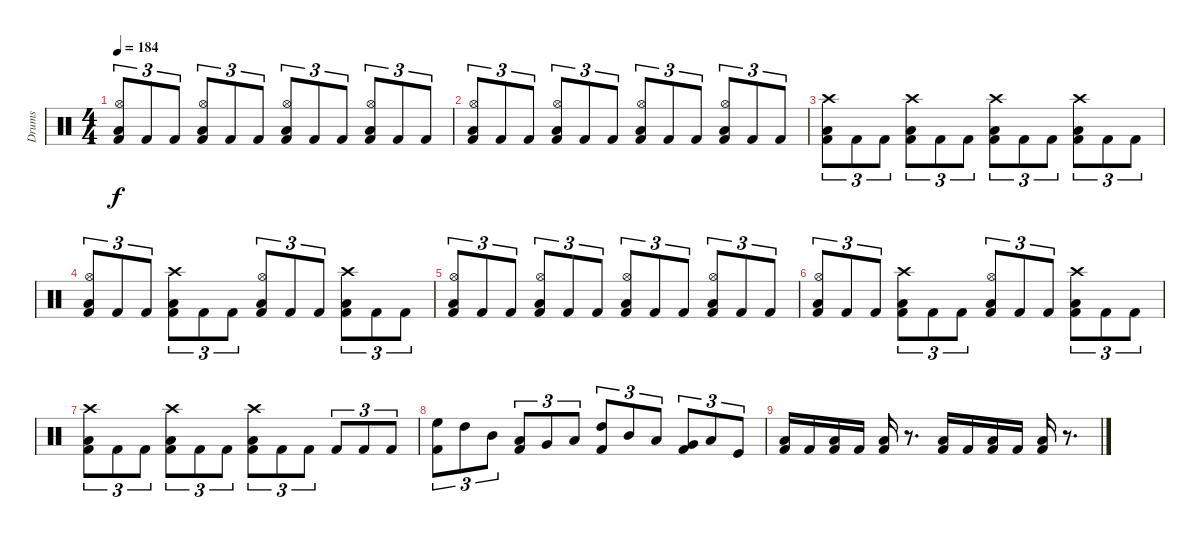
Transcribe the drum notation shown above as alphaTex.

\track ("Drums" "Drums") {instrument percussion}
\staff {score}
\articulation defaults
\ts (4 4)
\tempo 184
\clef neutral
\ks c
("Kick (hit) 2" "Hi-Hat (open)" "Low Floor Tom (hit)").8{tu (3 2) dy f} "Kick (hit) 2".8{tu (3 2)} "Kick (hit) 2".8{tu (3 2)} ("Hi-Hat (open)" "Low Floor Tom (hit)" "Kick (hit) 2").8{tu (3 2)} "Kick (hit) 2".8{tu (3 2)} "Kick (hit) 2".8{tu (3 2)} ("Kick (hit) 2" "Hi-Hat (open)" "Low Floor Tom (hit)").8{tu (3 2)} "Kick (hit) 2".8{tu (3 2)} "Kick (hit) 2".8{tu (3 2)} ("Hi-Hat (open)" "Low Floor Tom (hit)" "Kick (hit) 2").8{tu (3 2)} "Kick (hit) 2".8{tu (3 2)} "Kick (hit) 2".8{tu (3 2)} |
("Kick (hit) 2" "Hi-Hat (open)" "Low Floor Tom (hit)").8{tu (3 2)} "Kick (hit) 2".8{tu (3 2)} "Kick (hit) 2".8{tu (3 2)} ("Hi-Hat (open)" "Low Floor Tom (hit)" "Kick (hit) 2").8{tu (3 2)} "Kick (hit) 2".8{tu (3 2)} "Kick (hit) 2".8{tu (3 2)} ("Kick (hit) 2" "Hi-Hat (open)" "Low Floor Tom (hit)").8{tu (3 2)} "Kick (hit) 2".8{tu (3 2)} "Kick (hit) 2".8{tu (3 2)} ("Hi-Hat (open)" "Low Floor Tom (hit)" "Kick (hit) 2").8{tu (3 2)} "Kick (hit) 2".8{tu (3 2)} "Kick (hit) 2".8{tu (3 2)} |
("Kick (hit) 2" "Crash high (hit)" "Low Floor Tom (hit)").8{tu (3 2)} "Kick (hit) 2".8{tu (3 2)} "Kick (hit) 2".8{tu (3 2)} ("Crash high (hit)" "Low Floor Tom (hit)" "Kick (hit) 2").8{tu (3 2)} "Kick (hit) 2".8{tu (3 2)} "Kick (hit) 2".8{tu (3 2)} ("Kick (hit) 2" "Crash high (hit)" "Low Floor Tom (hit)").8{tu (3 2)} "Kick (hit) 2".8{tu (3 2)} "Kick (hit) 2".8{tu (3 2)} ("Crash high (hit)" "Low Floor Tom (hit)" "Kick (hit) 2").8{tu (3 2)} "Kick (hit) 2".8{tu (3 2)} "Kick (hit) 2".8{tu (3 2)} |
("Kick (hit) 2" "Hi-Hat (open)" "Low Floor Tom (hit)").8{tu (3 2)} "Kick (hit) 2".8{tu (3 2)} "Kick (hit) 2".8{tu (3 2)} ("Crash high (hit)" "Low Floor Tom (hit)" "Kick (hit) 2").8{tu (3 2)} "Kick (hit) 2".8{tu (3 2)} "Kick (hit) 2".8{tu (3 2)} ("Kick (hit) 2" "Hi-Hat (open)" "Low Floor Tom (hit)").8{tu (3 2)} "Kick (hit) 2".8{tu (3 2)} "Kick (hit) 2".8{tu (3 2)} ("Crash high (hit)" "Low Floor Tom (hit)" "Kick (hit) 2").8{tu (3 2)} "Kick (hit) 2".8{tu (3 2)} "Kick (hit) 2".8{tu (3 2)} |
("Kick (hit) 2" "Hi-Hat (open)" "Low Floor Tom (hit)").8{tu (3 2)} "Kick (hit) 2".8{tu (3 2)} "Kick (hit) 2".8{tu (3 2)} ("Hi-Hat (open)" "Low Floor Tom (hit)" "Kick (hit) 2").8{tu (3 2)} "Kick (hit) 2".8{tu (3 2)} "Kick (hit) 2".8{tu (3 2)} ("Kick (hit) 2" "Hi-Hat (open)" "Low Floor Tom (hit)").8{tu (3 2)} "Kick (hit) 2".8{tu (3 2)} "Kick (hit) 2".8{tu (3 2)} ("Hi-Hat (open)" "Low Floor Tom (hit)" "Kick (hit) 2").8{tu (3 2)} "Kick (hit) 2".8{tu (3 2)} "Kick (hit) 2".8{tu (3 2)} |
("Kick (hit) 2" "Hi-Hat (open)" "Low Floor Tom (hit)").8{tu (3 2)} "Kick (hit) 2".8{tu (3 2)} "Kick (hit) 2".8{tu (3 2)} ("Crash high (hit)" "Low Floor Tom (hit)" "Kick (hit) 2").8{tu (3 2)} "Kick (hit) 2".8{tu (3 2)} "Kick (hit) 2".8{tu (3 2)} ("Kick (hit) 2" "Hi-Hat (open)" "Low Floor Tom (hit)").8{tu (3 2)} "Kick (hit) 2".8{tu (3 2)} "Kick (hit) 2".8{tu (3 2)} ("Crash high (hit)" "Low Floor Tom (hit)" "Kick (hit) 2").8{tu (3 2)} "Kick (hit) 2".8{tu (3 2)} "Kick (hit) 2".8{tu (3 2)} |
("Kick (hit) 2" "Crash high (hit)" "Low Floor Tom (hit)").8{tu (3 2)} "Kick (hit) 2".8{tu (3 2)} "Kick (hit) 2".8{tu (3 2)} ("Crash high (hit)" "Low Floor Tom (hit)" "Kick (hit) 2").8{tu (3 2)} "Kick (hit) 2".8{tu (3 2)} "Kick (hit) 2".8{tu (3 2)} ("Kick (hit) 2" "Crash high (hit)" "Low Floor Tom (hit)").8{tu (3 2)} "Kick (hit) 2".8{tu (3 2)} "Kick (hit) 2".8{tu (3 2)} "Kick (hit) 2".8{tu (3 2)} "Kick (hit) 2".8{tu (3 2)} "Kick (hit) 2".8{tu (3 2)} |
("High Floor Tom (hit)" "Kick (hit) 2").8{tu (3 2)} "High Tom (hit)".8{tu (3 2)} "Mid Tom (hit)".8{tu (3 2)} ("Low Tom (hit)" "Kick (hit) 2").8{tu (3 2)} "Very Low Tom (hit)".8{tu (3 2)} "Low Floor Tom (hit)".8{tu (3 2)} ("High Tom (hit)" "Kick (hit) 2").8{tu (3 2)} "Mid Tom (hit)".8{tu (3 2)} "Low Tom (hit)".8{tu (3 2)} ("Very Low Tom (hit)" "Kick (hit) 2").8{tu (3 2)} "Low Floor Tom (hit)".8{tu (3 2)} "Kick (hit)".8{tu (3 2)} |
("Low Floor Tom (hit)" "Kick (hit) 2").16 "Kick (hit) 2".16 ("Low Floor Tom (hit)" "Kick (hit) 2").16 "Kick (hit) 2".16 ("Low Floor Tom (hit)" "Kick (hit) 2").16 r.8{d} ("Low Floor Tom (hit)" "Kick (hit) 2").16 "Kick (hit) 2".16 ("Low Floor Tom (hit)" "Kick (hit) 2").16 "Kick (hit) 2".16 ("Low Floor Tom (hit)" "Kick (hit) 2").16 r.8{d}
